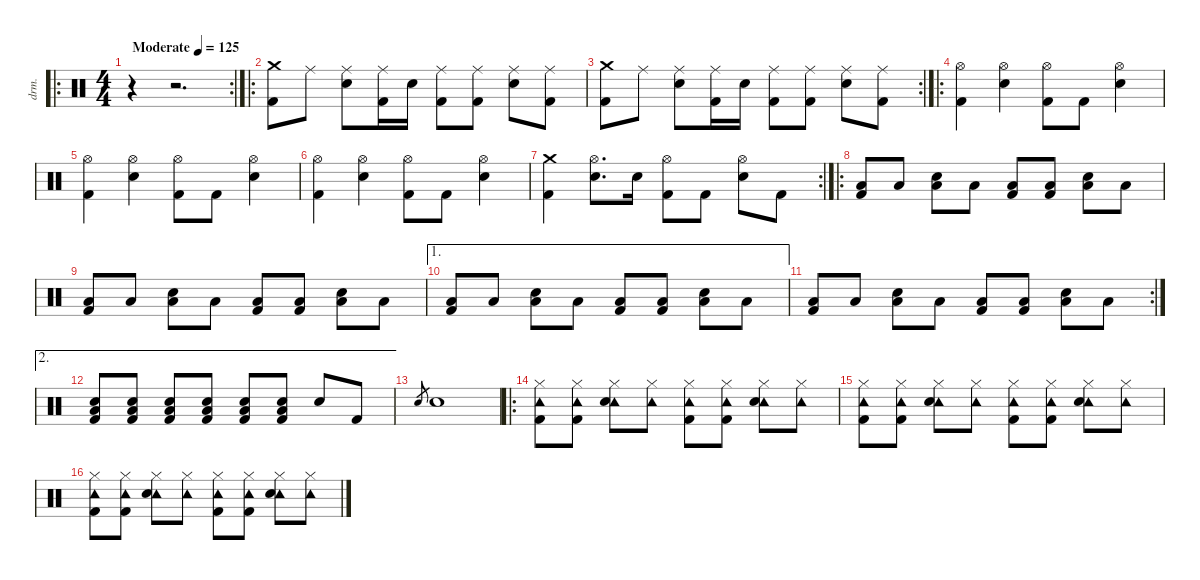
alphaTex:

\defaultSystemsLayout 4
\hideDynamics
\bracketExtendMode nobrackets
\otherSystemsTrackNameOrientation horizontal
\track ("Percussions" "drm.") {instrument percussion}
\staff {score}
\articulation defaults
\ro
\rc 2
\ts (4 4)
\beaming (8 2 2 2 2)
\tempo (125 "Moderate")
\clef neutral
\ks c
r.4{dy f} r.2{d} |
\ro
("Crash medium (hit)" "Kick (hit) 2").8 "Ride (middle)".8 ("Ride (middle)" "Snare (hit) 2").8 ("Ride (middle)" "Kick (hit) 2").16 "Snare (hit) 2".16 ("Ride (middle)" "Kick (hit) 2").8 ("Ride (middle)" "Kick (hit) 2").8 ("Ride (middle)" "Snare (hit) 2").8 ("Ride (middle)" "Kick (hit) 2").8 |
\rc 2
("Crash medium (hit)" "Kick (hit) 2").8 "Ride (middle)".8 ("Ride (middle)" "Snare (hit) 2").8 ("Ride (middle)" "Kick (hit) 2").16 "Snare (hit) 2".16 ("Ride (middle)" "Kick (hit) 2").8 ("Ride (middle)" "Kick (hit) 2").8 ("Ride (middle)" "Snare (hit) 2").8 ("Ride (middle)" "Kick (hit) 2").8 |
\ro
("Hi-Hat (open)" "Kick (hit) 2").4 ("Hi-Hat (open)" "Snare (hit) 2").4 ("Hi-Hat (open)" "Kick (hit) 2").8 "Kick (hit) 2".8 ("Hi-Hat (open)" "Snare (hit) 2").4 |
("Hi-Hat (open)" "Kick (hit) 2").4 ("Hi-Hat (open)" "Snare (hit) 2").4 ("Hi-Hat (open)" "Kick (hit) 2").8 "Kick (hit) 2".8 ("Hi-Hat (open)" "Snare (hit) 2").4 |
("Hi-Hat (open)" "Kick (hit) 2").4 ("Hi-Hat (open)" "Snare (hit) 2").4 ("Hi-Hat (open)" "Kick (hit) 2").8 "Kick (hit) 2".8 ("Hi-Hat (open)" "Snare (hit) 2").4 |
\rc 2
("Crash medium (hit)" "Kick (hit) 2").4 ("Hi-Hat (open)" "Snare (hit) 2").8{d} "Snare (hit) 2".16 ("Hi-Hat (open)" "Kick (hit) 2").8 "Kick (hit) 2".8 ("Hi-Hat (open)" "Snare (hit) 2").8 "Kick (hit) 2".8 |
\ro
("Low Tom (hit)" "Kick (hit) 2").8 "Low Tom (hit)".8 ("Low Tom (hit)" "Snare (hit) 2").8 "Low Tom (hit)".8 ("Low Tom (hit)" "Kick (hit) 2").8 ("Low Tom (hit)" "Kick (hit) 2").8 ("Low Tom (hit)" "Snare (hit) 2").8 "Low Tom (hit)".8 |
("Low Tom (hit)" "Kick (hit) 2").8 "Low Tom (hit)".8 ("Low Tom (hit)" "Snare (hit) 2").8 "Low Tom (hit)".8 ("Low Tom (hit)" "Kick (hit) 2").8 ("Low Tom (hit)" "Kick (hit) 2").8 ("Low Tom (hit)" "Snare (hit) 2").8 "Low Tom (hit)".8 |
\ae 1
("Low Tom (hit)" "Kick (hit) 2").8 "Low Tom (hit)".8 ("Low Tom (hit)" "Snare (hit) 2").8 "Low Tom (hit)".8 ("Low Tom (hit)" "Kick (hit) 2").8 ("Low Tom (hit)" "Kick (hit) 2").8 ("Low Tom (hit)" "Snare (hit) 2").8 "Low Tom (hit)".8 |
\rc 2
("Low Tom (hit)" "Kick (hit) 2").8 "Low Tom (hit)".8 ("Low Tom (hit)" "Snare (hit) 2").8 "Low Tom (hit)".8 ("Low Tom (hit)" "Kick (hit) 2").8 ("Low Tom (hit)" "Kick (hit) 2").8 ("Low Tom (hit)" "Snare (hit) 2").8 "Low Tom (hit)".8 |
\ae 2
("Low Tom (hit)" "Snare (hit) 2" "Kick (hit) 2").8 ("Low Tom (hit)" "Snare (hit) 2" "Kick (hit) 2").8 ("Low Tom (hit)" "Snare (hit) 2" "Kick (hit) 2").8 ("Low Tom (hit)" "Snare (hit) 2" "Kick (hit) 2").8 ("Low Tom (hit)" "Snare (hit) 2" "Kick (hit) 2").8 ("Low Tom (hit)" "Snare (hit) 2" "Kick (hit) 2").8 "Snare (hit) 2".8 "Kick (hit) 2".8 |
"Electric Snare (hit)".8{gr dy mf} "Snare (hit) 2".1{dy f} |
\ro
("Tambourine (hit)" "Hi-Hat (closed)" "Kick (hit) 2").8 ("Tambourine (hit)" "Hi-Hat (closed)" "Kick (hit) 2").8 ("Tambourine (hit)" "Hi-Hat (closed)" "Snare (hit) 2").8 ("Tambourine (hit)" "Hi-Hat (closed)").8 ("Tambourine (hit)" "Hi-Hat (closed)" "Kick (hit) 2").8 ("Tambourine (hit)" "Hi-Hat (closed)" "Kick (hit) 2").8 ("Tambourine (hit)" "Hi-Hat (closed)" "Snare (hit) 2").8 ("Tambourine (hit)" "Hi-Hat (closed)").8 |
("Tambourine (hit)" "Hi-Hat (closed)" "Kick (hit) 2").8 ("Tambourine (hit)" "Hi-Hat (closed)" "Kick (hit) 2").8 ("Tambourine (hit)" "Hi-Hat (closed)" "Snare (hit) 2").8 ("Tambourine (hit)" "Hi-Hat (closed)").8 ("Tambourine (hit)" "Hi-Hat (closed)" "Kick (hit) 2").8 ("Tambourine (hit)" "Hi-Hat (closed)" "Kick (hit) 2").8 ("Tambourine (hit)" "Hi-Hat (closed)" "Snare (hit) 2").8 ("Tambourine (hit)" "Hi-Hat (closed)").8 |
("Tambourine (hit)" "Hi-Hat (closed)" "Kick (hit) 2").8 ("Tambourine (hit)" "Hi-Hat (closed)" "Kick (hit) 2").8 ("Tambourine (hit)" "Hi-Hat (closed)" "Snare (hit) 2").8 ("Tambourine (hit)" "Hi-Hat (closed)").8 ("Tambourine (hit)" "Hi-Hat (closed)" "Kick (hit) 2").8 ("Tambourine (hit)" "Hi-Hat (closed)" "Kick (hit) 2").8 ("Tambourine (hit)" "Hi-Hat (closed)" "Snare (hit) 2").8 ("Tambourine (hit)" "Hi-Hat (closed)").8
